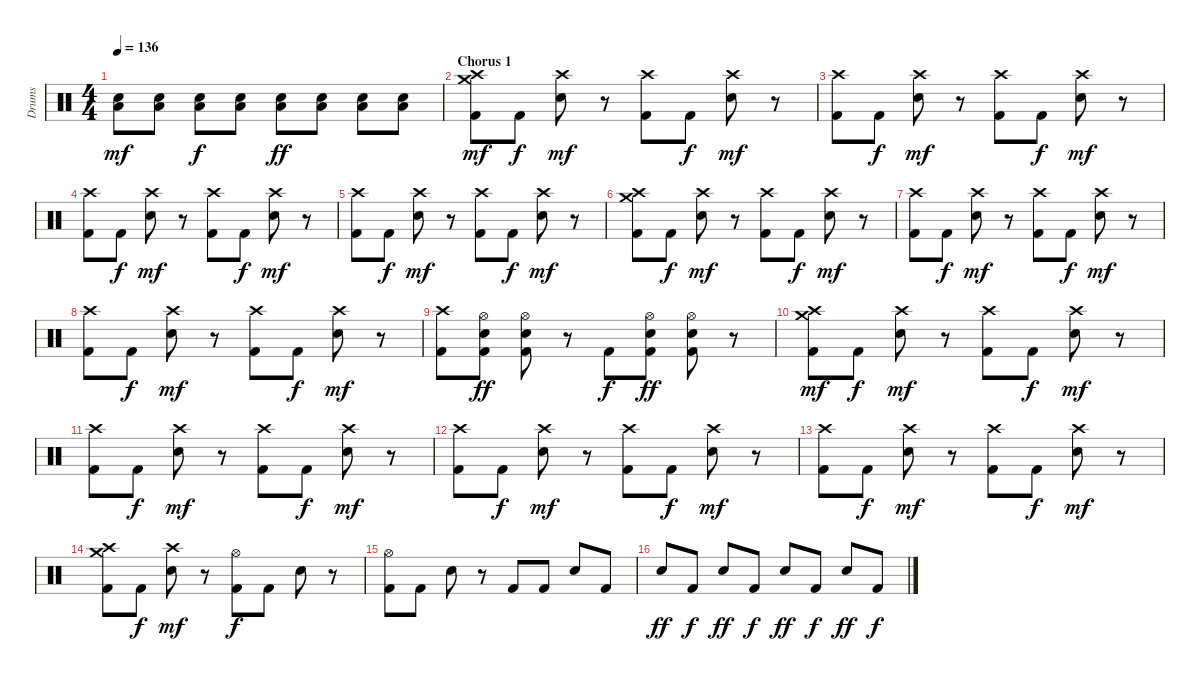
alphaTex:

\track ("Drums" "Drums") {instrument percussion}
\staff {score}
\articulation defaults
\ts (4 4)
\tempo 136
\clef neutral
\ks c
("Low Tom (hit)" "Electric Snare (hit)").8{dy mf} ("Low Tom (hit)" "Electric Snare (hit)").8 ("Low Tom (hit)" "Electric Snare (hit)").8{dy f} ("Low Tom (hit)" "Electric Snare (hit)").8 ("Low Tom (hit)" "Electric Snare (hit)").8{dy ff} ("Low Tom (hit)" "Electric Snare (hit)").8 ("Low Tom (hit)" "Electric Snare (hit)").8 ("Low Tom (hit)" "Electric Snare (hit)").8 |
\section ("" "Chorus 1")
("Crash medium (hit)" "Crash high (hit)" "Kick (hit) 2").8{dy mf} "Kick (hit) 2".8{dy f} ("Crash high (hit)" "Electric Snare (hit)").8{dy mf} r.8 ("Crash high (hit)" "Kick (hit) 2").8 "Kick (hit) 2".8{dy f} ("Crash high (hit)" "Electric Snare (hit)").8{dy mf} r.8 |
("Crash high (hit)" "Kick (hit) 2").8 "Kick (hit) 2".8{dy f} ("Crash high (hit)" "Electric Snare (hit)").8{dy mf} r.8 ("Crash high (hit)" "Kick (hit) 2").8 "Kick (hit) 2".8{dy f} ("Crash high (hit)" "Electric Snare (hit)").8{dy mf} r.8 |
("Crash high (hit)" "Kick (hit) 2").8 "Kick (hit) 2".8{dy f} ("Crash high (hit)" "Electric Snare (hit)").8{dy mf} r.8 ("Crash high (hit)" "Kick (hit) 2").8 "Kick (hit) 2".8{dy f} ("Crash high (hit)" "Electric Snare (hit)").8{dy mf} r.8 |
("Crash high (hit)" "Kick (hit) 2").8 "Kick (hit) 2".8{dy f} ("Crash high (hit)" "Electric Snare (hit)").8{dy mf} r.8 ("Crash high (hit)" "Kick (hit) 2").8 "Kick (hit) 2".8{dy f} ("Crash high (hit)" "Electric Snare (hit)").8{dy mf} r.8 |
("Crash medium (hit)" "Crash high (hit)" "Kick (hit) 2").8 "Kick (hit) 2".8{dy f} ("Crash high (hit)" "Electric Snare (hit)").8{dy mf} r.8 ("Crash high (hit)" "Kick (hit) 2").8 "Kick (hit) 2".8{dy f} ("Crash high (hit)" "Electric Snare (hit)").8{dy mf} r.8 |
("Crash high (hit)" "Kick (hit) 2").8 "Kick (hit) 2".8{dy f} ("Crash high (hit)" "Electric Snare (hit)").8{dy mf} r.8 ("Crash high (hit)" "Kick (hit) 2").8 "Kick (hit) 2".8{dy f} ("Crash high (hit)" "Electric Snare (hit)").8{dy mf} r.8 |
("Crash high (hit)" "Kick (hit) 2").8 "Kick (hit) 2".8{dy f} ("Crash high (hit)" "Electric Snare (hit)").8{dy mf} r.8 ("Crash high (hit)" "Kick (hit) 2").8 "Kick (hit) 2".8{dy f} ("Crash high (hit)" "Electric Snare (hit)").8{dy mf} r.8 |
("Crash high (hit)" "Kick (hit) 2").8 ("Hi-Hat (open)" "Electric Snare (hit)" "Kick (hit) 2").8{dy ff} ("Hi-Hat (open)" "Electric Snare (hit)" "Kick (hit) 2").8 r.8 "Kick (hit) 2".8{dy f} ("Hi-Hat (open)" "Electric Snare (hit)" "Kick (hit) 2").8{dy ff} ("Hi-Hat (open)" "Electric Snare (hit)" "Kick (hit) 2").8 r.8 |
("Crash medium (hit)" "Crash high (hit)" "Kick (hit) 2").8{dy mf} "Kick (hit) 2".8{dy f} ("Crash high (hit)" "Electric Snare (hit)").8{dy mf} r.8 ("Crash high (hit)" "Kick (hit) 2").8 "Kick (hit) 2".8{dy f} ("Crash high (hit)" "Electric Snare (hit)").8{dy mf} r.8 |
("Crash high (hit)" "Kick (hit) 2").8 "Kick (hit) 2".8{dy f} ("Crash high (hit)" "Electric Snare (hit)").8{dy mf} r.8 ("Crash high (hit)" "Kick (hit) 2").8 "Kick (hit) 2".8{dy f} ("Crash high (hit)" "Electric Snare (hit)").8{dy mf} r.8 |
("Crash high (hit)" "Kick (hit) 2").8 "Kick (hit) 2".8{dy f} ("Crash high (hit)" "Electric Snare (hit)").8{dy mf} r.8 ("Crash high (hit)" "Kick (hit) 2").8 "Kick (hit) 2".8{dy f} ("Crash high (hit)" "Electric Snare (hit)").8{dy mf} r.8 |
("Crash high (hit)" "Kick (hit) 2").8 "Kick (hit) 2".8{dy f} ("Crash high (hit)" "Electric Snare (hit)").8{dy mf} r.8 ("Crash high (hit)" "Kick (hit) 2").8 "Kick (hit) 2".8{dy f} ("Crash high (hit)" "Electric Snare (hit)").8{dy mf} r.8 |
("Crash medium (hit)" "Crash high (hit)" "Kick (hit) 2").8 "Kick (hit) 2".8{dy f} ("Crash high (hit)" "Electric Snare (hit)").8{dy mf} r.8 ("Hi-Hat (open)" "Kick (hit) 2").8{dy f} "Kick (hit) 2".8 "Electric Snare (hit)".8 r.8 |
("Hi-Hat (open)" "Kick (hit) 2").8 "Kick (hit) 2".8 "Electric Snare (hit)".8 r.8 "Kick (hit) 2".8 "Kick (hit) 2".8 "Electric Snare (hit)".8 "Kick (hit) 2".8 |
"Electric Snare (hit)".8{dy ff} "Kick (hit) 2".8{dy f} "Electric Snare (hit)".8{dy ff} "Kick (hit) 2".8{dy f} "Electric Snare (hit)".8{dy ff} "Kick (hit) 2".8{dy f} "Electric Snare (hit)".8{dy ff} "Kick (hit) 2".8{dy f}
